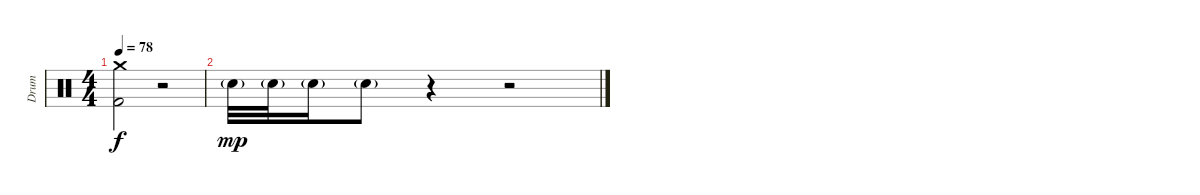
\track ("Drum" "Drum") {instrument percussion}
\staff {score}
\articulation defaults
\ts (4 4)
\tempo 78
\clef neutral
\ks c
("Crash medium (hit)" "Kick (hit) 2").2{dy f} r.2 |
"Electric Snare (hit)"{g}.32{dy mp} "Electric Snare (hit)"{g}.32 "Electric Snare (hit)"{g}.16 "Electric Snare (hit)"{g}.8 r.4 r.2
